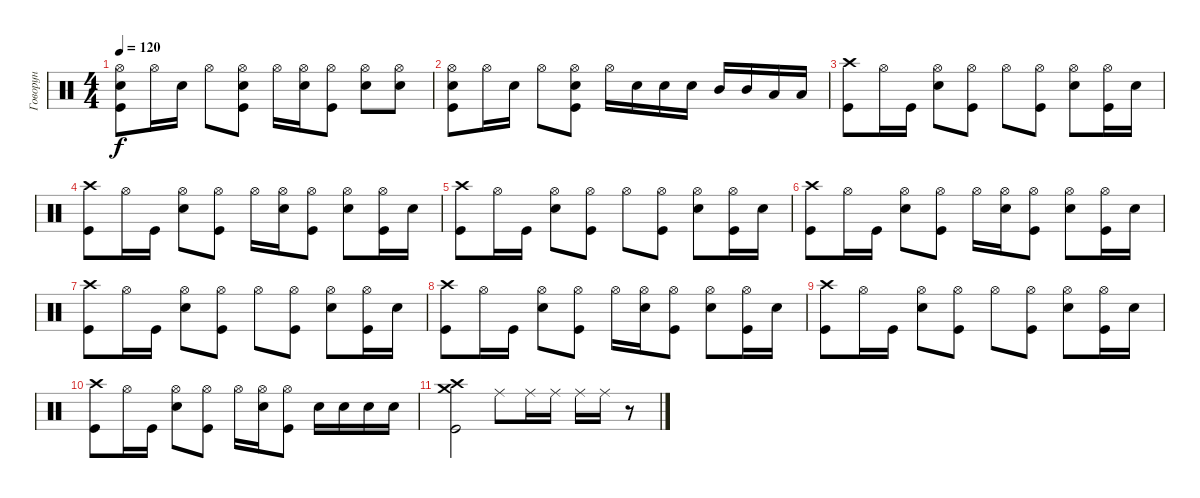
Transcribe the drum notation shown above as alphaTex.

\track ("Говорун" "Говорун") {instrument percussion}
\staff {score}
\articulation defaults
\ts (4 4)
\tempo 120
\clef neutral
\ks c
("Hi-Hat (open)" "Snare (hit) 2" "Kick (hit)").8{dy f} "Hi-Hat (open)".16 "Snare (hit) 2".16 "Hi-Hat (open)".8 ("Hi-Hat (open)" "Snare (hit) 2" "Kick (hit)").8 "Hi-Hat (open)".16 ("Hi-Hat (open)" "Snare (hit) 2").16 ("Hi-Hat (open)" "Kick (hit)").8 ("Hi-Hat (open)" "Snare (hit) 2").8 ("Hi-Hat (open)" "Snare (hit) 2").8 |
("Hi-Hat (open)" "Snare (hit) 2" "Kick (hit)").8 "Hi-Hat (open)".16 "Snare (hit) 2".16 "Hi-Hat (open)".8 ("Hi-Hat (open)" "Snare (hit) 2" "Kick (hit)").8 "Hi-Hat (open)".16 "Snare (hit) 2".16 "Snare (hit) 2".16 "Snare (hit) 2".16 "Mid Tom (hit)".16 "Mid Tom (hit)".16 "Low Tom (hit)".16 "Low Tom (hit)".16 |
("Crash high (hit)" "Kick (hit)").8 "Hi-Hat (open)".16 "Kick (hit)".16 ("Hi-Hat (open)" "Snare (hit) 2").8 ("Hi-Hat (open)" "Kick (hit)").8 "Hi-Hat (open)".8 ("Hi-Hat (open)" "Kick (hit)").8 ("Hi-Hat (open)" "Snare (hit) 2").8 ("Hi-Hat (open)" "Kick (hit)").16 "Snare (hit) 2".16 |
("Crash high (hit)" "Kick (hit)").8 "Hi-Hat (open)".16 "Kick (hit)".16 ("Hi-Hat (open)" "Snare (hit) 2").8 ("Hi-Hat (open)" "Kick (hit)").8 "Hi-Hat (open)".16 ("Hi-Hat (open)" "Snare (hit) 2").16 ("Hi-Hat (open)" "Kick (hit)").8 ("Hi-Hat (open)" "Snare (hit) 2").8 ("Hi-Hat (open)" "Kick (hit)").16 "Snare (hit) 2".16 |
("Crash high (hit)" "Kick (hit)").8 "Hi-Hat (open)".16 "Kick (hit)".16 ("Hi-Hat (open)" "Snare (hit) 2").8 ("Hi-Hat (open)" "Kick (hit)").8 "Hi-Hat (open)".8 ("Hi-Hat (open)" "Kick (hit)").8 ("Hi-Hat (open)" "Snare (hit) 2").8 ("Hi-Hat (open)" "Kick (hit)").16 "Snare (hit) 2".16 |
("Crash high (hit)" "Kick (hit)").8 "Hi-Hat (open)".16 "Kick (hit)".16 ("Hi-Hat (open)" "Snare (hit) 2").8 ("Hi-Hat (open)" "Kick (hit)").8 "Hi-Hat (open)".16 ("Hi-Hat (open)" "Snare (hit) 2").16 ("Hi-Hat (open)" "Kick (hit)").8 ("Hi-Hat (open)" "Snare (hit) 2").8 ("Hi-Hat (open)" "Kick (hit)").16 "Snare (hit) 2".16 |
("Crash high (hit)" "Kick (hit)").8 "Hi-Hat (open)".16 "Kick (hit)".16 ("Hi-Hat (open)" "Snare (hit) 2").8 ("Hi-Hat (open)" "Kick (hit)").8 "Hi-Hat (open)".8 ("Hi-Hat (open)" "Kick (hit)").8 ("Hi-Hat (open)" "Snare (hit) 2").8 ("Hi-Hat (open)" "Kick (hit)").16 "Snare (hit) 2".16 |
("Crash high (hit)" "Kick (hit)").8 "Hi-Hat (open)".16 "Kick (hit)".16 ("Hi-Hat (open)" "Snare (hit) 2").8 ("Hi-Hat (open)" "Kick (hit)").8 "Hi-Hat (open)".16 ("Hi-Hat (open)" "Snare (hit) 2").16 ("Hi-Hat (open)" "Kick (hit)").8 ("Hi-Hat (open)" "Snare (hit) 2").8 ("Hi-Hat (open)" "Kick (hit)").16 "Snare (hit) 2".16 |
("Crash high (hit)" "Kick (hit)").8 "Hi-Hat (open)".16 "Kick (hit)".16 ("Hi-Hat (open)" "Snare (hit) 2").8 ("Hi-Hat (open)" "Kick (hit)").8 "Hi-Hat (open)".8 ("Hi-Hat (open)" "Kick (hit)").8 ("Hi-Hat (open)" "Snare (hit) 2").8 ("Hi-Hat (open)" "Kick (hit)").16 "Snare (hit) 2".16 |
("Crash high (hit)" "Kick (hit)").8 "Hi-Hat (open)".16 "Kick (hit)".16 ("Hi-Hat (open)" "Snare (hit) 2").8 ("Hi-Hat (open)" "Kick (hit)").8 "Hi-Hat (open)".16 ("Hi-Hat (open)" "Snare (hit) 2").16 ("Hi-Hat (open)" "Kick (hit)").8 "Snare (hit) 2".16 "Snare (hit) 2".16 "Snare (hit) 2".16 "Snare (hit) 2".16 |
("Kick (hit)" "Crash high (hit)" "Crash medium (hit)").2 "Ride (middle)".8 "Ride (middle)".16 "Ride (middle)".16 "Ride (middle)".16 "Ride (middle)".16 r.8
